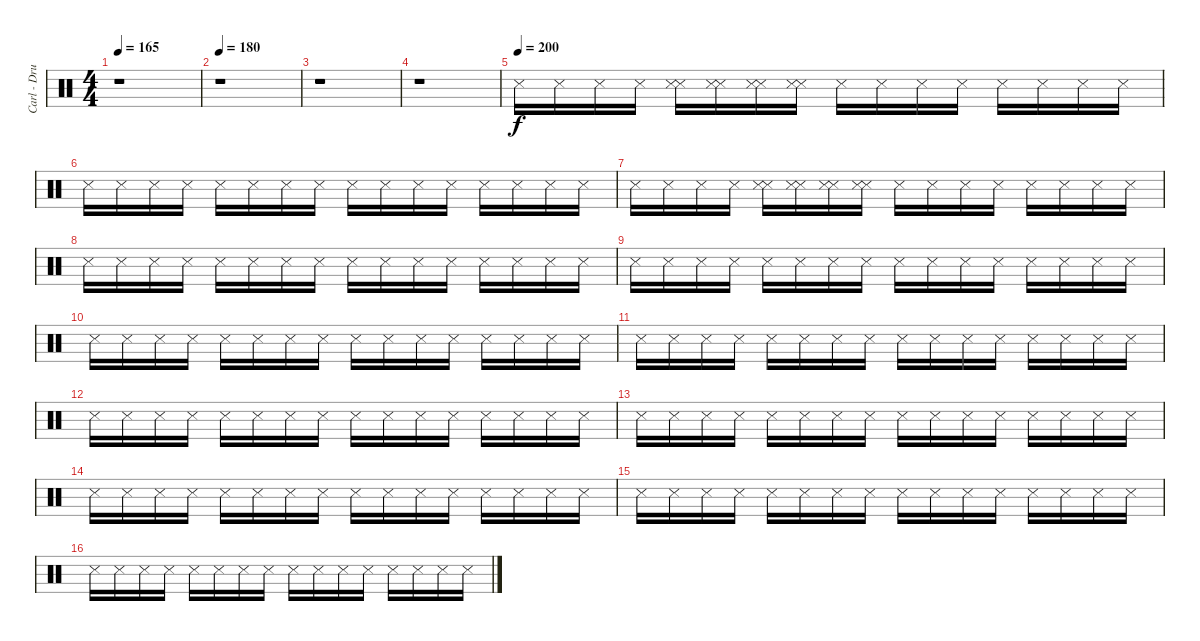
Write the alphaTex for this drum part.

\track ("Carl - Drums" "Carl - Dru") {instrument percussion}
\staff {score}
\articulation defaults
\ts (4 4)
\tempo 165
\clef neutral
\ks c
r.1{dy f} |
\tempo 180
r.1 |
r.1 |
r.1 |
\tempo (200)
"Metronome (hit)".16{volume 11} "Metronome (hit)".16 "Metronome (hit)".16 "Metronome (hit)".16 ("Metronome (hit)" "Metronome (hit)").16 ("Metronome (hit)" "Metronome (hit)").16 ("Metronome (hit)" "Metronome (hit)").16 ("Metronome (hit)" "Metronome (hit)").16 "Metronome (hit)".16 "Metronome (hit)".16 "Metronome (hit)".16 "Metronome (hit)".16 "Metronome (hit)".16 "Metronome (hit)".16 "Metronome (hit)".16 "Metronome (hit)".16 |
"Metronome (hit)".16 "Metronome (hit)".16 "Metronome (hit)".16 "Metronome (hit)".16 "Metronome (hit)".16 "Metronome (hit)".16 "Metronome (hit)".16 "Metronome (hit)".16 "Metronome (hit)".16 "Metronome (hit)".16 "Metronome (hit)".16 "Metronome (hit)".16 "Metronome (hit)".16 "Metronome (hit)".16 "Metronome (hit)".16 "Metronome (hit)".16 |
"Metronome (hit)".16 "Metronome (hit)".16 "Metronome (hit)".16 "Metronome (hit)".16 ("Metronome (hit)" "Metronome (hit)").16 ("Metronome (hit)" "Metronome (hit)").16 ("Metronome (hit)" "Metronome (hit)").16 ("Metronome (hit)" "Metronome (hit)").16 "Metronome (hit)".16 "Metronome (hit)".16 "Metronome (hit)".16 "Metronome (hit)".16 "Metronome (hit)".16 "Metronome (hit)".16 "Metronome (hit)".16 "Metronome (hit)".16 |
"Metronome (hit)".16 "Metronome (hit)".16 "Metronome (hit)".16 "Metronome (hit)".16 "Metronome (hit)".16 "Metronome (hit)".16 "Metronome (hit)".16 "Metronome (hit)".16 "Metronome (hit)".16 "Metronome (hit)".16 "Metronome (hit)".16 "Metronome (hit)".16 "Metronome (hit)".16 "Metronome (hit)".16 "Metronome (hit)".16 "Metronome (hit)".16 |
"Metronome (hit)".16 "Metronome (hit)".16 "Metronome (hit)".16 "Metronome (hit)".16 "Metronome (hit)".16 "Metronome (hit)".16 "Metronome (hit)".16 "Metronome (hit)".16 "Metronome (hit)".16 "Metronome (hit)".16 "Metronome (hit)".16 "Metronome (hit)".16 "Metronome (hit)".16 "Metronome (hit)".16 "Metronome (hit)".16 "Metronome (hit)".16 |
"Metronome (hit)".16 "Metronome (hit)".16 "Metronome (hit)".16 "Metronome (hit)".16 "Metronome (hit)".16 "Metronome (hit)".16 "Metronome (hit)".16 "Metronome (hit)".16 "Metronome (hit)".16 "Metronome (hit)".16 "Metronome (hit)".16 "Metronome (hit)".16 "Metronome (hit)".16 "Metronome (hit)".16 "Metronome (hit)".16 "Metronome (hit)".16 |
"Metronome (hit)".16 "Metronome (hit)".16 "Metronome (hit)".16 "Metronome (hit)".16 "Metronome (hit)".16 "Metronome (hit)".16 "Metronome (hit)".16 "Metronome (hit)".16 "Metronome (hit)".16 "Metronome (hit)".16 "Metronome (hit)".16 "Metronome (hit)".16 "Metronome (hit)".16 "Metronome (hit)".16 "Metronome (hit)".16 "Metronome (hit)".16 |
"Metronome (hit)".16 "Metronome (hit)".16 "Metronome (hit)".16 "Metronome (hit)".16 "Metronome (hit)".16 "Metronome (hit)".16 "Metronome (hit)".16 "Metronome (hit)".16 "Metronome (hit)".16 "Metronome (hit)".16 "Metronome (hit)".16 "Metronome (hit)".16 "Metronome (hit)".16 "Metronome (hit)".16 "Metronome (hit)".16 "Metronome (hit)".16 |
"Metronome (hit)".16 "Metronome (hit)".16 "Metronome (hit)".16 "Metronome (hit)".16 "Metronome (hit)".16 "Metronome (hit)".16 "Metronome (hit)".16 "Metronome (hit)".16 "Metronome (hit)".16 "Metronome (hit)".16 "Metronome (hit)".16 "Metronome (hit)".16 "Metronome (hit)".16 "Metronome (hit)".16 "Metronome (hit)".16 "Metronome (hit)".16 |
"Metronome (hit)".16 "Metronome (hit)".16 "Metronome (hit)".16 "Metronome (hit)".16 "Metronome (hit)".16 "Metronome (hit)".16 "Metronome (hit)".16 "Metronome (hit)".16 "Metronome (hit)".16 "Metronome (hit)".16 "Metronome (hit)".16 "Metronome (hit)".16 "Metronome (hit)".16 "Metronome (hit)".16 "Metronome (hit)".16 "Metronome (hit)".16 |
"Metronome (hit)".16 "Metronome (hit)".16 "Metronome (hit)".16 "Metronome (hit)".16 "Metronome (hit)".16 "Metronome (hit)".16 "Metronome (hit)".16 "Metronome (hit)".16 "Metronome (hit)".16 "Metronome (hit)".16 "Metronome (hit)".16 "Metronome (hit)".16 "Metronome (hit)".16 "Metronome (hit)".16 "Metronome (hit)".16 "Metronome (hit)".16 |
"Metronome (hit)".16 "Metronome (hit)".16 "Metronome (hit)".16 "Metronome (hit)".16 "Metronome (hit)".16 "Metronome (hit)".16 "Metronome (hit)".16 "Metronome (hit)".16 "Metronome (hit)".16 "Metronome (hit)".16 "Metronome (hit)".16 "Metronome (hit)".16 "Metronome (hit)".16 "Metronome (hit)".16 "Metronome (hit)".16 "Metronome (hit)".16
